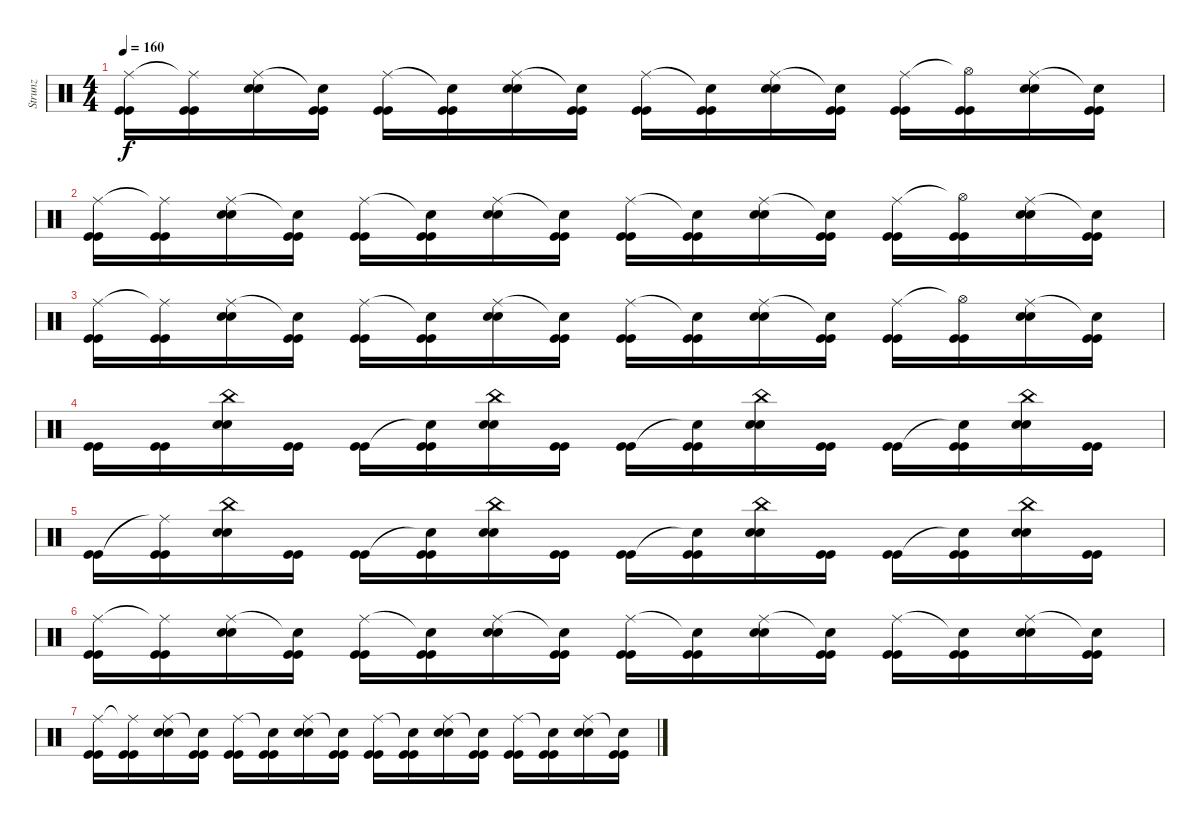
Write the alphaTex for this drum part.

\track ("Strunz" "Strunz") {instrument percussion}
\staff {score}
\articulation defaults
\ts (4 4)
\tempo 160
\clef neutral
\ks c
("Ride (middle)" "Kick (hit)" "Kick (hit)").16{dy f} ("Ride (middle)"{t} "Kick (hit)" "Kick (hit)").16 ("Ride (middle)" "Snare (hit) 2" "Snare (hit) 2").16 ("Snare (hit)"{t} "Kick (hit)" "Kick (hit)").16 ("Ride (middle)" "Kick (hit)" "Kick (hit)").16 ("Snare (hit)"{t} "Kick (hit)" "Kick (hit)").16 ("Ride (middle)" "Snare (hit) 2" "Snare (hit) 2").16 ("Snare (hit)"{t} "Kick (hit)" "Kick (hit)").16 ("Ride (middle)" "Kick (hit)" "Kick (hit)").16 ("Snare (hit)"{t} "Kick (hit)" "Kick (hit)").16 ("Ride (middle)" "Snare (hit) 2" "Snare (hit) 2").16 ("Snare (hit)"{t} "Kick (hit)" "Kick (hit)").16 ("Ride (middle)" "Kick (hit)" "Kick (hit)").16 ("Hi-Hat (open)"{t} "Kick (hit)" "Kick (hit)").16 ("Ride (middle)" "Snare (hit) 2" "Snare (hit) 2").16 ("Snare (hit)"{t} "Kick (hit)" "Kick (hit)").16 |
("Ride (middle)" "Kick (hit)" "Kick (hit)").16 ("Ride (middle)"{t} "Kick (hit)" "Kick (hit)").16 ("Ride (middle)" "Snare (hit) 2" "Snare (hit) 2").16 ("Snare (hit)"{t} "Kick (hit)" "Kick (hit)").16 ("Ride (middle)" "Kick (hit)" "Kick (hit)").16 ("Snare (hit)"{t} "Kick (hit)" "Kick (hit)").16 ("Ride (middle)" "Snare (hit) 2" "Snare (hit) 2").16 ("Snare (hit)"{t} "Kick (hit)" "Kick (hit)").16 ("Ride (middle)" "Kick (hit)" "Kick (hit)").16 ("Snare (hit)"{t} "Kick (hit)" "Kick (hit)").16 ("Ride (middle)" "Snare (hit) 2" "Snare (hit) 2").16 ("Snare (hit)"{t} "Kick (hit)" "Kick (hit)").16 ("Ride (middle)" "Kick (hit)" "Kick (hit)").16 ("Hi-Hat (open)"{t} "Kick (hit)" "Kick (hit)").16 ("Ride (middle)" "Snare (hit) 2" "Snare (hit) 2").16 ("Snare (hit)"{t} "Kick (hit)" "Kick (hit)").16 |
("Ride (middle)" "Kick (hit)" "Kick (hit)").16 ("Ride (middle)"{t} "Kick (hit)" "Kick (hit)").16 ("Ride (middle)" "Snare (hit) 2" "Snare (hit) 2").16 ("Snare (hit)"{t} "Kick (hit)" "Kick (hit)").16 ("Ride (middle)" "Kick (hit)" "Kick (hit)").16 ("Snare (hit)"{t} "Kick (hit)" "Kick (hit)").16 ("Ride (middle)" "Snare (hit) 2" "Snare (hit) 2").16 ("Snare (hit)"{t} "Kick (hit)" "Kick (hit)").16 ("Ride (middle)" "Kick (hit)" "Kick (hit)").16 ("Snare (hit)"{t} "Kick (hit)" "Kick (hit)").16 ("Ride (middle)" "Snare (hit) 2" "Snare (hit) 2").16 ("Snare (hit)"{t} "Kick (hit)" "Kick (hit)").16 ("Ride (middle)" "Kick (hit)" "Kick (hit)").16 ("Hi-Hat (open)"{t} "Kick (hit)" "Kick (hit)").16 ("Ride (middle)" "Snare (hit) 2" "Snare (hit) 2").16 ("Snare (hit)"{t} "Kick (hit)" "Kick (hit)").16 |
("Kick (hit)" "Kick (hit)").16 ("Kick (hit)" "Kick (hit)").16 ("China (hit)" "Snare (hit) 2" "Snare (hit) 2").16 ("Kick (hit)" "Kick (hit)").16 ("Kick (hit)" "Kick (hit)").16 ("Snare (hit)"{t} "Kick (hit)" "Kick (hit)").16 ("China (hit)" "Snare (hit) 2" "Snare (hit) 2").16 ("Kick (hit)" "Kick (hit)").16 ("Kick (hit)" "Kick (hit)").16 ("Snare (hit)"{t} "Kick (hit)" "Kick (hit)").16 ("China (hit)" "Snare (hit) 2" "Snare (hit) 2").16 ("Kick (hit)" "Kick (hit)").16 ("Kick (hit)" "Kick (hit)").16 ("Snare (hit)"{t} "Kick (hit)" "Kick (hit)").16 ("China (hit)" "Snare (hit) 2" "Snare (hit) 2").16 ("Kick (hit)" "Kick (hit)").16 |
("Kick (hit)" "Kick (hit)").16 ("Ride (middle)"{t} "Kick (hit)" "Kick (hit)").16 ("China (hit)" "Snare (hit) 2" "Snare (hit) 2").16 ("Kick (hit)" "Kick (hit)").16 ("Kick (hit)" "Kick (hit)").16 ("Snare (hit)"{t} "Kick (hit)" "Kick (hit)").16 ("China (hit)" "Snare (hit) 2" "Snare (hit) 2").16 ("Kick (hit)" "Kick (hit)").16 ("Kick (hit)" "Kick (hit)").16 ("Snare (hit)"{t} "Kick (hit)" "Kick (hit)").16 ("China (hit)" "Snare (hit) 2" "Snare (hit) 2").16 ("Kick (hit)" "Kick (hit)").16 ("Kick (hit)" "Kick (hit)").16 ("Snare (hit)"{t} "Kick (hit)" "Kick (hit)").16 ("China (hit)" "Snare (hit) 2" "Snare (hit) 2").16 ("Kick (hit)" "Kick (hit)").16 |
("Ride (middle)" "Kick (hit)" "Kick (hit)").16 ("Ride (middle)"{t} "Kick (hit)" "Kick (hit)").16 ("Ride (middle)" "Snare (hit) 2" "Snare (hit) 2").16 ("Snare (hit)"{t} "Kick (hit)" "Kick (hit)").16 ("Ride (middle)" "Kick (hit)" "Kick (hit)").16 ("Snare (hit)"{t} "Kick (hit)" "Kick (hit)").16 ("Ride (middle)" "Snare (hit) 2" "Snare (hit) 2").16 ("Snare (hit)"{t} "Kick (hit)" "Kick (hit)").16 ("Ride (middle)" "Kick (hit)" "Kick (hit)").16 ("Snare (hit)"{t} "Kick (hit)" "Kick (hit)").16 ("Ride (middle)" "Snare (hit) 2" "Snare (hit) 2").16 ("Snare (hit)"{t} "Kick (hit)" "Kick (hit)").16 ("Ride (middle)" "Kick (hit)" "Kick (hit)").16 ("Snare (hit)"{t} "Kick (hit)" "Kick (hit)").16 ("Ride (middle)" "Snare (hit) 2" "Snare (hit) 2").16 ("Snare (hit)"{t} "Kick (hit)" "Kick (hit)").16 |
("Ride (middle)" "Kick (hit)" "Kick (hit)").16 ("Ride (middle)"{t} "Kick (hit)" "Kick (hit)").16 ("Ride (middle)" "Snare (hit) 2" "Snare (hit) 2").16 ("Snare (hit)"{t} "Kick (hit)" "Kick (hit)").16 ("Ride (middle)" "Kick (hit)" "Kick (hit)").16 ("Snare (hit)"{t} "Kick (hit)" "Kick (hit)").16 ("Ride (middle)" "Snare (hit) 2" "Snare (hit) 2").16 ("Snare (hit)"{t} "Kick (hit)" "Kick (hit)").16 ("Ride (middle)" "Kick (hit)" "Kick (hit)").16 ("Snare (hit)"{t} "Kick (hit)" "Kick (hit)").16 ("Ride (middle)" "Snare (hit) 2" "Snare (hit) 2").16 ("Snare (hit)"{t} "Kick (hit)" "Kick (hit)").16 ("Ride (middle)" "Kick (hit)" "Kick (hit)").16 ("Snare (hit)"{t} "Kick (hit)" "Kick (hit)").16 ("Ride (middle)" "Snare (hit) 2" "Snare (hit) 2").16 ("Snare (hit)"{t} "Kick (hit)" "Kick (hit)").16
